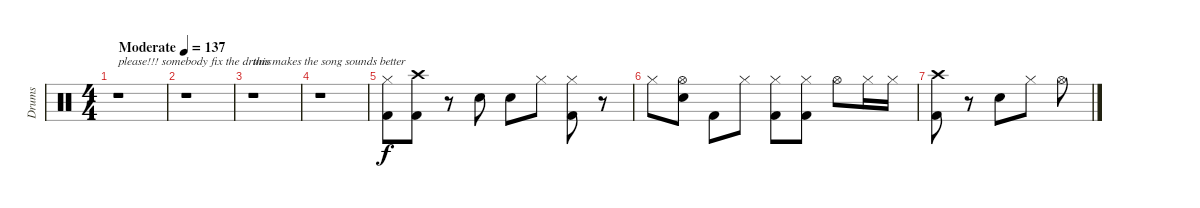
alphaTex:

\track ("Drums" "Drums") {instrument percussion}
\staff {score}
\articulation defaults
\ts (4 4)
\tempo (137 "Moderate")
\clef neutral
\ks c
r.1{txt "please!!! somebody fix the drums" dy f} |
r.1 |
r.1{txt "this makes the song sounds better"} |
r.1 |
("Kick (hit) 2" "Hi-Hat (closed)").8 ("Kick (hit) 2" "Crash high (hit)").8 r.8 "Snare (hit) 2".8 "Snare (hit) 2".8 "Hi-Hat (closed)".8 ("Kick (hit) 2" "Hi-Hat (closed)").8 r.8 |
"Hi-Hat (closed)".8 ("Snare (hit) 2" "Hi-Hat (open)").8 "Kick (hit) 2".8 "Hi-Hat (closed)".8 ("Kick (hit) 2" "Hi-Hat (closed)").8 ("Kick (hit) 2" "Hi-Hat (closed)").8 "Hi-Hat (open)".8 "Hi-Hat (closed)".16 "Hi-Hat (closed)".16 |
("Kick (hit) 2" "Crash high (hit)").8 r.8 "Snare (hit) 2".8 "Hi-Hat (closed)".8 "Hi-Hat (open)".8
